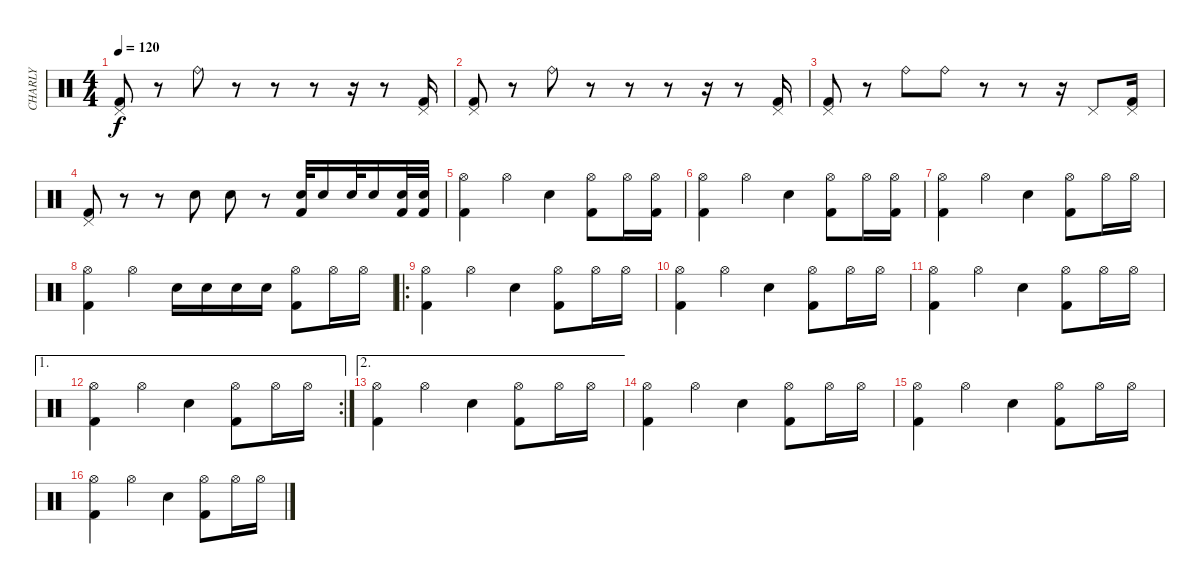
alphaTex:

\track ("CHARLY" "CHARLY") {instrument percussion}
\staff {score}
\articulation defaults
\ts (4 4)
\tempo 120
\clef neutral
\ks c
("Kick (hit) 2" "Pedal Hi-Hat (hit)").8{dy f} r.8 "Ride (bell)".8 r.8 r.8 r.8 r.16 r.8 ("Kick (hit) 2" "Pedal Hi-Hat (hit)").16 |
("Kick (hit) 2" "Pedal Hi-Hat (hit)").8 r.8 "Ride (bell)".8 r.8 r.8 r.8 r.16 r.8 ("Kick (hit) 2" "Pedal Hi-Hat (hit)").16 |
("Kick (hit) 2" "Pedal Hi-Hat (hit)").8 r.8 "Ride (bell)".8 "Ride (bell)".8 r.8 r.8 r.16 "Pedal Hi-Hat (hit)".8 ("Kick (hit) 2" "Pedal Hi-Hat (hit)").16 |
("Kick (hit) 2" "Pedal Hi-Hat (hit)").8 r.8 r.8 "Electric Snare (hit)".8 "Electric Snare (hit)".8 r.8 ("Snare (hit) 2" "Kick (hit) 2").32 "Snare (hit) 2".16 "Electric Snare (hit)".32 "Electric Snare (hit)".16 ("Electric Snare (hit)" "Kick (hit) 2").32 ("Electric Snare (hit)" "Kick (hit) 2").32 |
("Kick (hit) 2" "Hi-Hat (open)").4 "Hi-Hat (open)".4 "Electric Snare (hit)".4 ("Kick (hit) 2" "Hi-Hat (open)").8 "Hi-Hat (open)".16 ("Kick (hit) 2" "Hi-Hat (open)").16 |
("Kick (hit) 2" "Hi-Hat (open)").4 "Hi-Hat (open)".4 "Electric Snare (hit)".4 ("Kick (hit) 2" "Hi-Hat (open)").8 "Hi-Hat (open)".16 ("Kick (hit) 2" "Hi-Hat (open)").16 |
("Kick (hit) 2" "Hi-Hat (open)").4 "Hi-Hat (open)".4 "Electric Snare (hit)".4 ("Kick (hit) 2" "Hi-Hat (open)").8 "Hi-Hat (open)".16 "Hi-Hat (open)".16 |
("Kick (hit) 2" "Hi-Hat (open)").4 "Hi-Hat (open)".4 "Electric Snare (hit)".16 "Electric Snare (hit)".16 "Snare (hit) 2".16 "Snare (hit) 2".16 ("Kick (hit) 2" "Hi-Hat (open)").8 "Hi-Hat (open)".16 "Hi-Hat (open)".16 |
\ro
("Kick (hit) 2" "Hi-Hat (open)").4 "Hi-Hat (open)".4 "Electric Snare (hit)".4 ("Kick (hit) 2" "Hi-Hat (open)").8 "Hi-Hat (open)".16 "Hi-Hat (open)".16 |
("Kick (hit) 2" "Hi-Hat (open)").4 "Hi-Hat (open)".4 "Electric Snare (hit)".4 ("Kick (hit) 2" "Hi-Hat (open)").8 "Hi-Hat (open)".16 "Hi-Hat (open)".16 |
("Kick (hit) 2" "Hi-Hat (open)").4 "Hi-Hat (open)".4 "Electric Snare (hit)".4 ("Kick (hit) 2" "Hi-Hat (open)").8 "Hi-Hat (open)".16 "Hi-Hat (open)".16 |
\ae 1
\rc 2
("Kick (hit) 2" "Hi-Hat (open)").4 "Hi-Hat (open)".4 "Electric Snare (hit)".4 ("Kick (hit) 2" "Hi-Hat (open)").8 "Hi-Hat (open)".16 "Hi-Hat (open)".16 |
\ae 2
("Kick (hit) 2" "Hi-Hat (open)").4 "Hi-Hat (open)".4 "Electric Snare (hit)".4 ("Kick (hit) 2" "Hi-Hat (open)").8 "Hi-Hat (open)".16 "Hi-Hat (open)".16 |
("Kick (hit) 2" "Hi-Hat (open)").4 "Hi-Hat (open)".4 "Electric Snare (hit)".4 ("Kick (hit) 2" "Hi-Hat (open)").8 "Hi-Hat (open)".16 "Hi-Hat (open)".16 |
("Kick (hit) 2" "Hi-Hat (open)").4 "Hi-Hat (open)".4 "Electric Snare (hit)".4 ("Kick (hit) 2" "Hi-Hat (open)").8 "Hi-Hat (open)".16 "Hi-Hat (open)".16 |
("Kick (hit) 2" "Hi-Hat (open)").4 "Hi-Hat (open)".4 "Electric Snare (hit)".4 ("Kick (hit) 2" "Hi-Hat (open)").8 "Hi-Hat (open)".16 "Hi-Hat (open)".16
